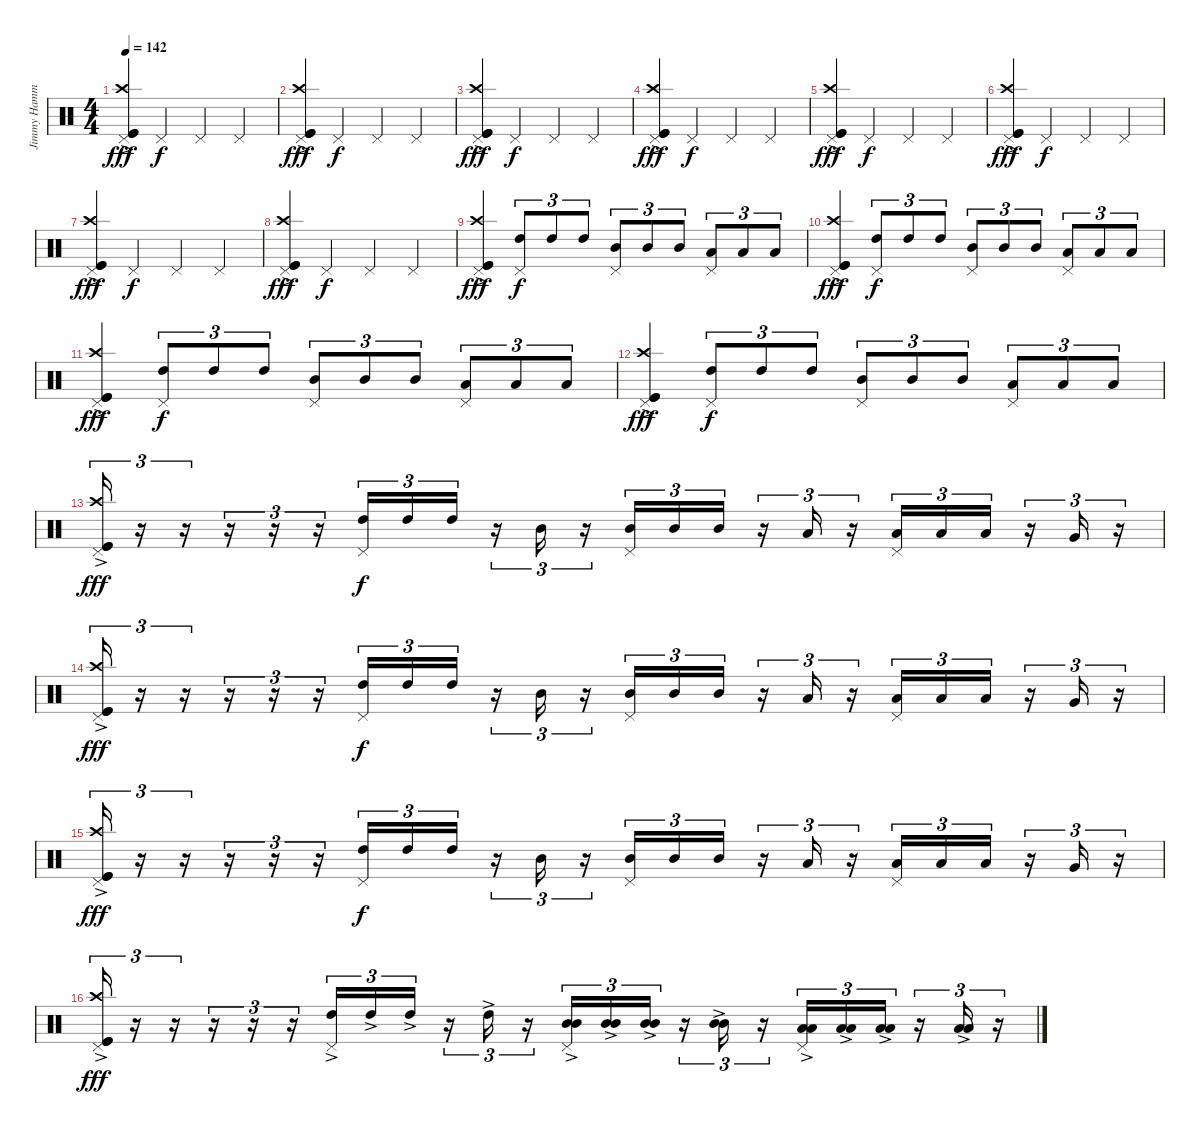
\track ("Jimmy Hammer" "Jimmy Hamm") {instrument percussion}
\staff {score}
\articulation defaults
\ts (4 4)
\tempo 142
\clef neutral
\ks c
("Kick (hit)"{ac} "Crash high (hit)" "Pedal Hi-Hat (hit)" "Kick (hit)"{ac}).4{dy fff} "Pedal Hi-Hat (hit)".4{dy f} "Pedal Hi-Hat (hit)".4 "Pedal Hi-Hat (hit)".4 |
("Kick (hit)"{ac} "Crash high (hit)" "Pedal Hi-Hat (hit)" "Kick (hit)"{ac}).4{dy fff} "Pedal Hi-Hat (hit)".4{dy f} "Pedal Hi-Hat (hit)".4 "Pedal Hi-Hat (hit)".4 |
("Kick (hit)"{ac} "Crash high (hit)" "Pedal Hi-Hat (hit)" "Kick (hit)"{ac}).4{dy fff} "Pedal Hi-Hat (hit)".4{dy f} "Pedal Hi-Hat (hit)".4 "Pedal Hi-Hat (hit)".4 |
("Kick (hit)"{ac} "Crash high (hit)" "Pedal Hi-Hat (hit)" "Kick (hit)"{ac}).4{dy fff} "Pedal Hi-Hat (hit)".4{dy f} "Pedal Hi-Hat (hit)".4 "Pedal Hi-Hat (hit)".4 |
("Kick (hit)"{ac} "Crash high (hit)" "Pedal Hi-Hat (hit)" "Kick (hit)"{ac}).4{dy fff} "Pedal Hi-Hat (hit)".4{dy f} "Pedal Hi-Hat (hit)".4 "Pedal Hi-Hat (hit)".4 |
("Kick (hit)"{ac} "Crash high (hit)" "Pedal Hi-Hat (hit)" "Kick (hit)"{ac}).4{dy fff} "Pedal Hi-Hat (hit)".4{dy f} "Pedal Hi-Hat (hit)".4 "Pedal Hi-Hat (hit)".4 |
("Kick (hit)"{ac} "Crash high (hit)" "Pedal Hi-Hat (hit)" "Kick (hit)"{ac}).4{dy fff} "Pedal Hi-Hat (hit)".4{dy f} "Pedal Hi-Hat (hit)".4 "Pedal Hi-Hat (hit)".4 |
("Kick (hit)"{ac} "Crash high (hit)" "Pedal Hi-Hat (hit)" "Kick (hit)"{ac}).4{dy fff} "Pedal Hi-Hat (hit)".4{dy f} "Pedal Hi-Hat (hit)".4 "Pedal Hi-Hat (hit)".4 |
("Kick (hit)"{ac} "Crash high (hit)" "Pedal Hi-Hat (hit)" "Kick (hit)"{ac}).4{dy fff} ("High Tom (hit)" "Pedal Hi-Hat (hit)").8{tu (3 2) dy f} "High Tom (hit)".8{tu (3 2)} "High Tom (hit)".8{tu (3 2)} ("Mid Tom (hit)" "Pedal Hi-Hat (hit)").8{tu (3 2)} "Mid Tom (hit)".8{tu (3 2)} "Mid Tom (hit)".8{tu (3 2)} ("Low Tom (hit)" "Pedal Hi-Hat (hit)").8{tu (3 2)} "Low Tom (hit)".8{tu (3 2)} "Low Tom (hit)".8{tu (3 2)} |
("Kick (hit)"{ac} "Crash high (hit)" "Pedal Hi-Hat (hit)" "Kick (hit)"{ac}).4{dy fff} ("High Tom (hit)" "Pedal Hi-Hat (hit)").8{tu (3 2) dy f} "High Tom (hit)".8{tu (3 2)} "High Tom (hit)".8{tu (3 2)} ("Mid Tom (hit)" "Pedal Hi-Hat (hit)").8{tu (3 2)} "Mid Tom (hit)".8{tu (3 2)} "Mid Tom (hit)".8{tu (3 2)} ("Low Tom (hit)" "Pedal Hi-Hat (hit)").8{tu (3 2)} "Low Tom (hit)".8{tu (3 2)} "Low Tom (hit)".8{tu (3 2)} |
("Kick (hit)"{ac} "Crash high (hit)" "Pedal Hi-Hat (hit)" "Kick (hit)"{ac}).4{dy fff} ("High Tom (hit)" "Pedal Hi-Hat (hit)").8{tu (3 2) dy f} "High Tom (hit)".8{tu (3 2)} "High Tom (hit)".8{tu (3 2)} ("Mid Tom (hit)" "Pedal Hi-Hat (hit)").8{tu (3 2)} "Mid Tom (hit)".8{tu (3 2)} "Mid Tom (hit)".8{tu (3 2)} ("Low Tom (hit)" "Pedal Hi-Hat (hit)").8{tu (3 2)} "Low Tom (hit)".8{tu (3 2)} "Low Tom (hit)".8{tu (3 2)} |
("Kick (hit)"{ac} "Crash high (hit)" "Pedal Hi-Hat (hit)" "Kick (hit)"{ac}).4{dy fff} ("High Tom (hit)" "Pedal Hi-Hat (hit)").8{tu (3 2) dy f} "High Tom (hit)".8{tu (3 2)} "High Tom (hit)".8{tu (3 2)} ("Mid Tom (hit)" "Pedal Hi-Hat (hit)").8{tu (3 2)} "Mid Tom (hit)".8{tu (3 2)} "Mid Tom (hit)".8{tu (3 2)} ("Low Tom (hit)" "Pedal Hi-Hat (hit)").8{tu (3 2)} "Low Tom (hit)".8{tu (3 2)} "Low Tom (hit)".8{tu (3 2)} |
("Kick (hit)"{ac} "Crash high (hit)" "Pedal Hi-Hat (hit)" "Kick (hit)"{ac}).16{tu (3 2) dy fff} r.16{tu (3 2)} r.16{tu (3 2)} r.16{tu (3 2)} r.16{tu (3 2)} r.16{tu (3 2)} ("High Tom (hit)" "Pedal Hi-Hat (hit)").16{tu (3 2) dy f} "High Tom (hit)".16{tu (3 2)} "High Tom (hit)".16{tu (3 2)} r.16{tu (3 2)} "Mid Tom (hit)".16{tu (3 2)} r.16{tu (3 2)} ("Mid Tom (hit)" "Pedal Hi-Hat (hit)").16{tu (3 2)} "Mid Tom (hit)".16{tu (3 2)} "Mid Tom (hit)".16{tu (3 2)} r.16{tu (3 2)} "Low Tom (hit)".16{tu (3 2)} r.16{tu (3 2)} ("Low Tom (hit)" "Pedal Hi-Hat (hit)").16{tu (3 2)} "Low Tom (hit)".16{tu (3 2)} "Low Tom (hit)".16{tu (3 2)} r.16{tu (3 2)} "Very Low Tom (hit)".16{tu (3 2)} r.16{tu (3 2)} |
("Kick (hit)"{ac} "Crash high (hit)" "Pedal Hi-Hat (hit)" "Kick (hit)"{ac}).16{tu (3 2) dy fff} r.16{tu (3 2)} r.16{tu (3 2)} r.16{tu (3 2)} r.16{tu (3 2)} r.16{tu (3 2)} ("High Tom (hit)" "Pedal Hi-Hat (hit)").16{tu (3 2) dy f} "High Tom (hit)".16{tu (3 2)} "High Tom (hit)".16{tu (3 2)} r.16{tu (3 2)} "Mid Tom (hit)".16{tu (3 2)} r.16{tu (3 2)} ("Mid Tom (hit)" "Pedal Hi-Hat (hit)").16{tu (3 2)} "Mid Tom (hit)".16{tu (3 2)} "Mid Tom (hit)".16{tu (3 2)} r.16{tu (3 2)} "Low Tom (hit)".16{tu (3 2)} r.16{tu (3 2)} ("Low Tom (hit)" "Pedal Hi-Hat (hit)").16{tu (3 2)} "Low Tom (hit)".16{tu (3 2)} "Low Tom (hit)".16{tu (3 2)} r.16{tu (3 2)} "Very Low Tom (hit)".16{tu (3 2)} r.16{tu (3 2)} |
("Kick (hit)"{ac} "Crash high (hit)" "Pedal Hi-Hat (hit)" "Kick (hit)"{ac}).16{tu (3 2) dy fff} r.16{tu (3 2)} r.16{tu (3 2)} r.16{tu (3 2)} r.16{tu (3 2)} r.16{tu (3 2)} ("High Tom (hit)" "Pedal Hi-Hat (hit)").16{tu (3 2) dy f} "High Tom (hit)".16{tu (3 2)} "High Tom (hit)".16{tu (3 2)} r.16{tu (3 2)} "Mid Tom (hit)".16{tu (3 2)} r.16{tu (3 2)} ("Mid Tom (hit)" "Pedal Hi-Hat (hit)").16{tu (3 2)} "Mid Tom (hit)".16{tu (3 2)} "Mid Tom (hit)".16{tu (3 2)} r.16{tu (3 2)} "Low Tom (hit)".16{tu (3 2)} r.16{tu (3 2)} ("Low Tom (hit)" "Pedal Hi-Hat (hit)").16{tu (3 2)} "Low Tom (hit)".16{tu (3 2)} "Low Tom (hit)".16{tu (3 2)} r.16{tu (3 2)} "Very Low Tom (hit)".16{tu (3 2)} r.16{tu (3 2)} |
("Kick (hit)"{ac} "Crash high (hit)" "Pedal Hi-Hat (hit)" "Kick (hit)"{ac}).16{tu (3 2) dy fff} r.16{tu (3 2)} r.16{tu (3 2)} r.16{tu (3 2)} r.16{tu (3 2)} r.16{tu (3 2)} ("High Tom (hit)"{ac} "Pedal Hi-Hat (hit)").16{tu (3 2)} "High Tom (hit)"{ac}.16{tu (3 2)} "High Tom (hit)"{ac}.16{tu (3 2)} r.16{tu (3 2)} "High Tom (hit)"{ac}.16{tu (3 2)} r.16{tu (3 2)} ("Mid Tom (hit)" "Mid Tom (hit)"{ac} "Pedal Hi-Hat (hit)").16{tu (3 2)} ("Mid Tom (hit)"{ac} "Mid Tom (hit)").16{tu (3 2)} ("Mid Tom (hit)"{ac} "Mid Tom (hit)").16{tu (3 2)} r.16{tu (3 2)} ("Mid Tom (hit)"{ac} "Mid Tom (hit)").16{tu (3 2)} r.16{tu (3 2)} ("Low Tom (hit)" "Low Tom (hit)"{ac} "Pedal Hi-Hat (hit)").16{tu (3 2)} ("Low Tom (hit)"{ac} "Low Tom (hit)").16{tu (3 2)} ("Low Tom (hit)"{ac} "Low Tom (hit)").16{tu (3 2)} r.16{tu (3 2)} ("Low Tom (hit)"{ac} "Low Tom (hit)").16{tu (3 2)} r.16{tu (3 2)}
